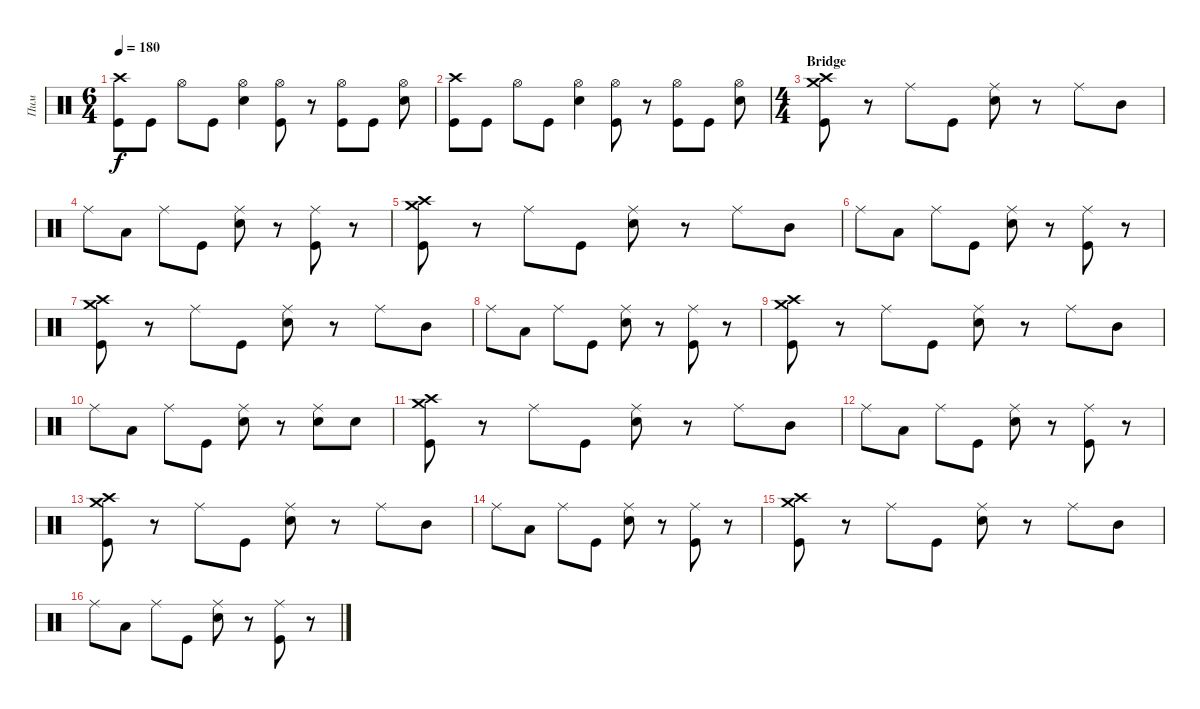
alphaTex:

\track ("Пим" "Пим") {instrument percussion}
\staff {score}
\articulation defaults
\ts (6 4)
\tempo 180
\clef neutral
\ks c
("Crash high (hit)" "Kick (hit)").8{dy f} "Kick (hit)".8 "Hi-Hat (open)".8 "Kick (hit)".8 ("Hi-Hat (open)" "Snare (hit) 2").4 ("Hi-Hat (open)" "Kick (hit)").8 r.8 ("Hi-Hat (open)" "Kick (hit)").8 "Kick (hit)".8 ("Hi-Hat (open)" "Snare (hit) 2").8 |
("Crash high (hit)" "Kick (hit)").8 "Kick (hit)".8 "Hi-Hat (open)".8 "Kick (hit)".8 ("Hi-Hat (open)" "Snare (hit) 2").4 ("Hi-Hat (open)" "Kick (hit)").8 r.8 ("Hi-Hat (open)" "Kick (hit)").8 "Kick (hit)".8 ("Hi-Hat (open)" "Snare (hit) 2").8 |
\ts (4 4)
\section ("" "Bridge")
("Crash high (hit)" "Crash medium (hit)" "Kick (hit)").8 r.8 "Ride (middle)".8 "Kick (hit)".8 ("Ride (middle)" "Snare (hit) 2").8 r.8 "Ride (middle)".8 "Mid Tom (hit)".8 |
"Ride (middle)".8 "Low Tom (hit)".8 "Ride (middle)".8 "Kick (hit)".8 ("Ride (middle)" "Snare (hit) 2").8 r.8 ("Ride (middle)" "Kick (hit)").8 r.8 |
("Crash high (hit)" "Crash medium (hit)" "Kick (hit)").8 r.8 "Ride (middle)".8 "Kick (hit)".8 ("Ride (middle)" "Snare (hit) 2").8 r.8 "Ride (middle)".8 "Mid Tom (hit)".8 |
"Ride (middle)".8 "Low Tom (hit)".8 "Ride (middle)".8 "Kick (hit)".8 ("Ride (middle)" "Snare (hit) 2").8 r.8 ("Ride (middle)" "Kick (hit)").8 r.8 |
("Crash high (hit)" "Crash medium (hit)" "Kick (hit)").8 r.8 "Ride (middle)".8 "Kick (hit)".8 ("Ride (middle)" "Snare (hit) 2").8 r.8 "Ride (middle)".8 "Mid Tom (hit)".8 |
"Ride (middle)".8 "Low Tom (hit)".8 "Ride (middle)".8 "Kick (hit)".8 ("Ride (middle)" "Snare (hit) 2").8 r.8 ("Ride (middle)" "Kick (hit)").8 r.8 |
("Crash high (hit)" "Crash medium (hit)" "Kick (hit)").8 r.8 "Ride (middle)".8 "Kick (hit)".8 ("Ride (middle)" "Snare (hit) 2").8 r.8 "Ride (middle)".8 "Mid Tom (hit)".8 |
"Ride (middle)".8 "Low Tom (hit)".8 "Ride (middle)".8 "Kick (hit)".8 ("Ride (middle)" "Snare (hit) 2").8 r.8 ("Ride (middle)" "Snare (hit) 2").8 "Snare (hit) 2".8 |
("Crash high (hit)" "Crash medium (hit)" "Kick (hit)").8 r.8 "Ride (middle)".8 "Kick (hit)".8 ("Ride (middle)" "Snare (hit) 2").8 r.8 "Ride (middle)".8 "Mid Tom (hit)".8 |
"Ride (middle)".8 "Low Tom (hit)".8 "Ride (middle)".8 "Kick (hit)".8 ("Ride (middle)" "Snare (hit) 2").8 r.8 ("Ride (middle)" "Kick (hit)").8 r.8 |
("Crash high (hit)" "Crash medium (hit)" "Kick (hit)").8 r.8 "Ride (middle)".8 "Kick (hit)".8 ("Ride (middle)" "Snare (hit) 2").8 r.8 "Ride (middle)".8 "Mid Tom (hit)".8 |
"Ride (middle)".8 "Low Tom (hit)".8 "Ride (middle)".8 "Kick (hit)".8 ("Ride (middle)" "Snare (hit) 2").8 r.8 ("Ride (middle)" "Kick (hit)").8 r.8 |
("Crash high (hit)" "Crash medium (hit)" "Kick (hit)").8 r.8 "Ride (middle)".8 "Kick (hit)".8 ("Ride (middle)" "Snare (hit) 2").8 r.8 "Ride (middle)".8 "Mid Tom (hit)".8 |
"Ride (middle)".8 "Low Tom (hit)".8 "Ride (middle)".8 "Kick (hit)".8 ("Ride (middle)" "Snare (hit) 2").8 r.8 ("Ride (middle)" "Kick (hit)").8 r.8
